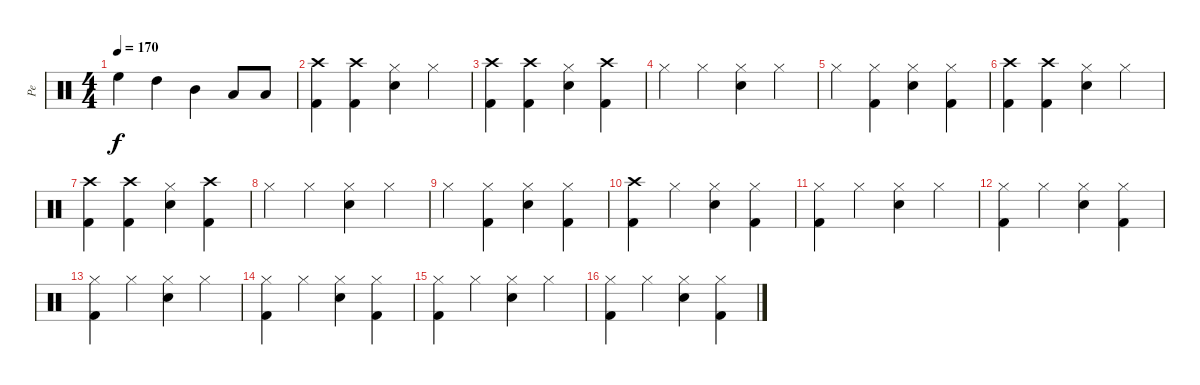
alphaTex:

\track ("Pe" "Pe") {instrument percussion}
\staff {score}
\articulation defaults
\ts (4 4)
\tempo 170
\clef neutral
\ks c "High Floor Tom (hit)".4{dy f} "High Tom (hit)".4 "Mid Tom (hit)".4 "Low Tom (hit)".8 "Low Tom (hit)".8
|
("Kick (hit) 2" "Crash high (hit)").4 ("Kick (hit) 2" "Crash high (hit)").4 ("Snare (hit) 2" "Hi-Hat (closed)").4 "Hi-Hat (closed)".4 |
("Kick (hit) 2" "Crash high (hit)").4 ("Kick (hit) 2" "Crash high (hit)").4 ("Snare (hit) 2" "Hi-Hat (closed)").4 ("Kick (hit) 2" "Crash high (hit)").4 |
"Hi-Hat (closed)".4 "Hi-Hat (closed)".4 ("Snare (hit) 2" "Hi-Hat (closed)").4 "Hi-Hat (closed)".4 |
"Hi-Hat (closed)".4 ("Kick (hit) 2" "Hi-Hat (closed)").4 ("Snare (hit) 2" "Hi-Hat (closed)").4 ("Kick (hit) 2" "Hi-Hat (closed)").4 |
("Kick (hit) 2" "Crash high (hit)").4 ("Kick (hit) 2" "Crash high (hit)").4 ("Snare (hit) 2" "Hi-Hat (closed)").4 "Hi-Hat (closed)".4 |
("Kick (hit) 2" "Crash high (hit)").4 ("Kick (hit) 2" "Crash high (hit)").4 ("Snare (hit) 2" "Hi-Hat (closed)").4 ("Kick (hit) 2" "Crash high (hit)").4 |
"Hi-Hat (closed)".4 "Hi-Hat (closed)".4 ("Snare (hit) 2" "Hi-Hat (closed)").4 "Hi-Hat (closed)".4 |
"Hi-Hat (closed)".4 ("Kick (hit) 2" "Hi-Hat (closed)").4 ("Snare (hit) 2" "Hi-Hat (closed)").4 ("Kick (hit) 2" "Hi-Hat (closed)").4 |
("Kick (hit) 2" "Crash high (hit)").4 "Hi-Hat (closed)".4 ("Snare (hit) 2" "Hi-Hat (closed)").4 ("Kick (hit) 2" "Hi-Hat (closed)").4 |
("Kick (hit) 2" "Hi-Hat (closed)").4 "Hi-Hat (closed)".4 ("Snare (hit) 2" "Hi-Hat (closed)").4 "Hi-Hat (closed)".4 |
("Kick (hit) 2" "Hi-Hat (closed)").4 "Hi-Hat (closed)".4 ("Snare (hit) 2" "Hi-Hat (closed)").4 ("Kick (hit) 2" "Hi-Hat (closed)").4 |
("Kick (hit) 2" "Hi-Hat (closed)").4 "Hi-Hat (closed)".4 ("Snare (hit) 2" "Hi-Hat (closed)").4 "Hi-Hat (closed)".4 |
("Kick (hit) 2" "Hi-Hat (closed)").4 "Hi-Hat (closed)".4 ("Snare (hit) 2" "Hi-Hat (closed)").4 ("Kick (hit) 2" "Hi-Hat (closed)").4 |
("Kick (hit) 2" "Hi-Hat (closed)").4 "Hi-Hat (closed)".4 ("Snare (hit) 2" "Hi-Hat (closed)").4 "Hi-Hat (closed)".4 |
("Kick (hit) 2" "Hi-Hat (closed)").4 "Hi-Hat (closed)".4 ("Snare (hit) 2" "Hi-Hat (closed)").4 ("Kick (hit) 2" "Hi-Hat (closed)").4
